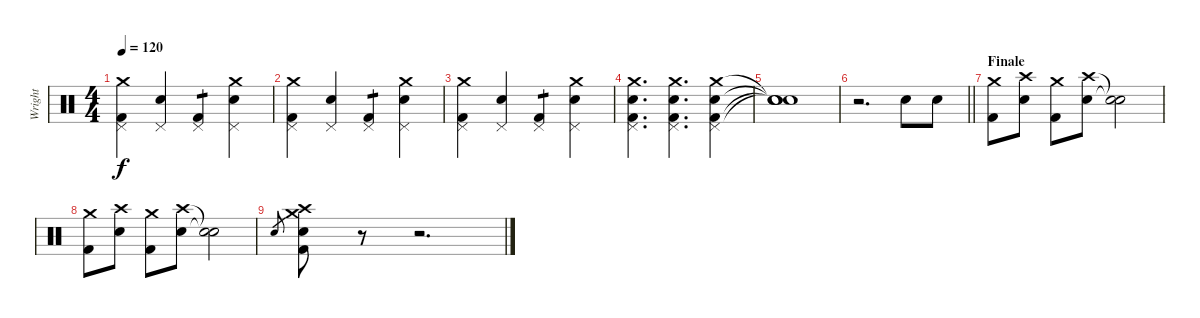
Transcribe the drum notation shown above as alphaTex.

\track ("Wright" "Wright") {instrument percussion}
\staff {score}
\articulation defaults
\ts (4 4)
\tempo 120
\clef neutral
\ks c
("Crash medium (hit)" "Kick (hit) 2" "Pedal Hi-Hat (hit)").4{dy f} ("Snare (hit) 2" "Pedal Hi-Hat (hit)").4 ("Kick (hit) 2" "Pedal Hi-Hat (hit)").4{tp 1} ("Snare (hit) 2" "Pedal Hi-Hat (hit)" "Crash medium (hit)").4 |
("Crash medium (hit)" "Kick (hit) 2" "Pedal Hi-Hat (hit)").4 ("Snare (hit) 2" "Pedal Hi-Hat (hit)").4 ("Kick (hit) 2" "Pedal Hi-Hat (hit)").4{tp 1} ("Snare (hit) 2" "Pedal Hi-Hat (hit)" "Crash medium (hit)").4 |
("Crash medium (hit)" "Kick (hit) 2" "Pedal Hi-Hat (hit)").4 ("Snare (hit) 2" "Pedal Hi-Hat (hit)").4 ("Kick (hit) 2" "Pedal Hi-Hat (hit)").4{tp 1} ("Snare (hit) 2" "Pedal Hi-Hat (hit)" "Crash medium (hit)").4 |
("Kick (hit) 2" "Snare (hit) 2" "Pedal Hi-Hat (hit)" "Crash medium (hit)").4{d} ("Kick (hit) 2" "Snare (hit) 2" "Pedal Hi-Hat (hit)" "Crash medium (hit)").4{d} ("Kick (hit) 2" "Snare (hit) 2" "Pedal Hi-Hat (hit)" "Crash medium (hit)").4 |
("Snare (hit)"{t} "Snare (hit)"{t} "Snare (hit)"{t} "Snare (hit)"{t}).1 |
\barLineRight lightlight
r.2{d} "Snare (hit) 2".8 "Snare (hit) 2".8 |
\section ("" "Finale")
("Kick (hit) 2" "Crash medium (hit)").8 ("Snare (hit) 2" "Crash high (hit)").8 ("Kick (hit) 2" "Crash medium (hit)").8 ("Snare (hit) 2" "Crash high (hit)").8 ("Snare (hit)"{t} "Snare (hit)"{t}).2 |
("Kick (hit) 2" "Crash medium (hit)").8 ("Snare (hit) 2" "Crash high (hit)").8 ("Kick (hit) 2" "Crash medium (hit)").8 ("Snare (hit) 2" "Crash high (hit)").8 ("Snare (hit)"{t} "Snare (hit)"{t}).2 |
"Snare (hit) 2".8{gr} ("Kick (hit) 2" "Snare (hit) 2" "Crash medium (hit)" "Crash high (hit)").8 r.8 r.2{d}
